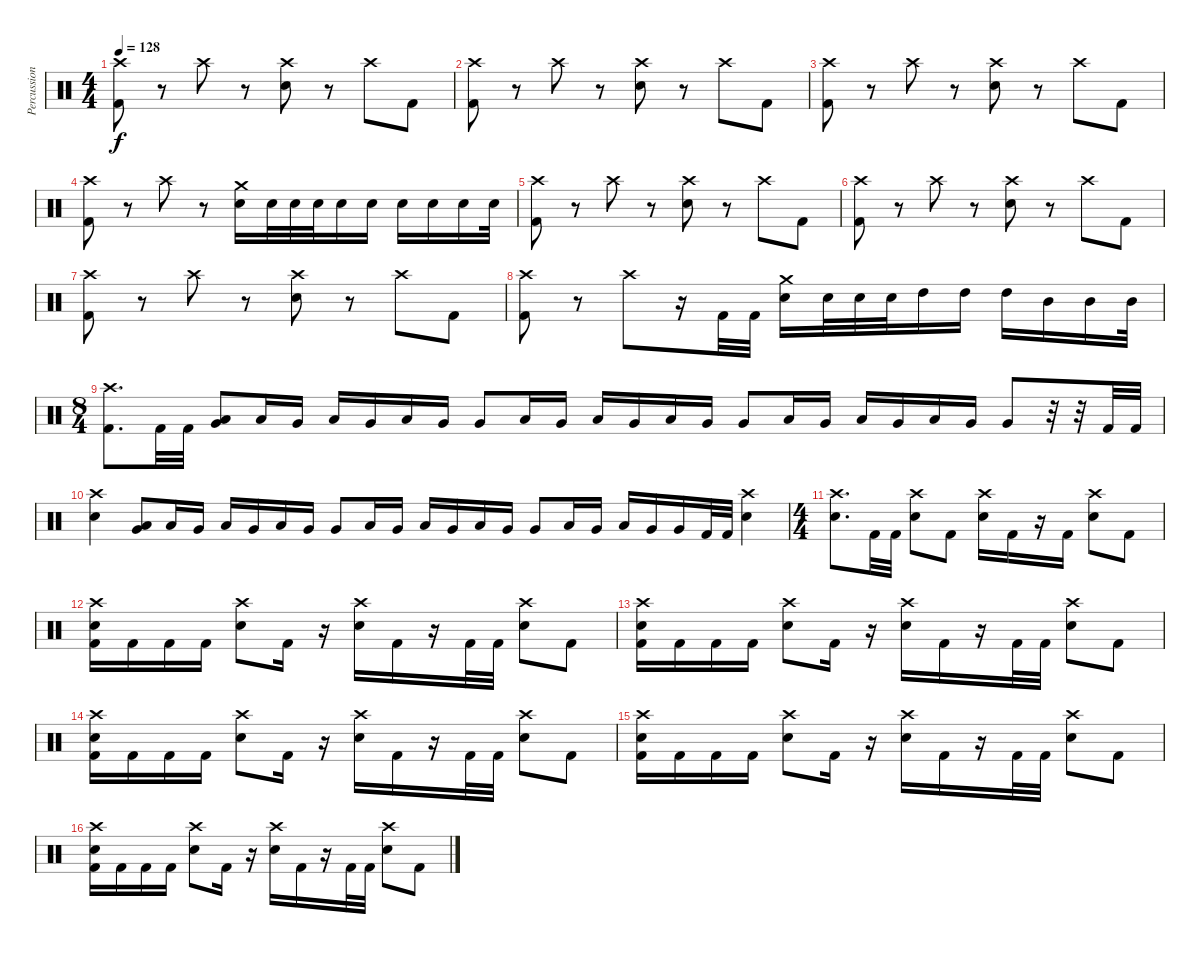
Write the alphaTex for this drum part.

\track ("Percussion" "Percussion") {instrument percussion}
\staff {score}
\articulation defaults
\ts (4 4)
\tempo 128
\clef neutral
\ks c
("Crash high (hit)" "Kick (hit) 2").8{dy f} r.8 "Crash high (hit)".8 r.8 ("Crash high (hit)" "Snare (hit) 2").8 r.8 "Crash high (hit)".8 "Kick (hit) 2".8 |
("Crash high (hit)" "Kick (hit) 2").8 r.8 "Crash high (hit)".8 r.8 ("Crash high (hit)" "Snare (hit) 2").8 r.8 "Crash high (hit)".8 "Kick (hit) 2".8 |
("Crash high (hit)" "Kick (hit) 2").8 r.8 "Crash high (hit)".8 r.8 ("Crash high (hit)" "Snare (hit) 2").8 r.8 "Crash high (hit)".8 "Kick (hit) 2".8 |
("Crash high (hit)" "Kick (hit) 2").8 r.8 "Crash high (hit)".8 r.8 ("Crash medium (hit)" "Snare (hit) 2").16 "Snare (hit) 2".32 "Snare (hit) 2".32 "Snare (hit) 2".32 "Snare (hit) 2".16 "Snare (hit) 2".16 "Snare (hit) 2".16 "Snare (hit) 2".16 "Snare (hit) 2".16 "Snare (hit) 2".32 |
("Crash high (hit)" "Kick (hit) 2").8 r.8 "Crash high (hit)".8 r.8 ("Crash high (hit)" "Snare (hit) 2").8 r.8 "Crash high (hit)".8 "Kick (hit) 2".8 |
("Crash high (hit)" "Kick (hit) 2").8 r.8 "Crash high (hit)".8 r.8 ("Crash high (hit)" "Snare (hit) 2").8 r.8 "Crash high (hit)".8 "Kick (hit) 2".8 |
("Crash high (hit)" "Kick (hit) 2").8 r.8 "Crash high (hit)".8 r.8 ("Crash high (hit)" "Snare (hit) 2").8 r.8 "Crash high (hit)".8 "Kick (hit) 2".8 |
("Crash high (hit)" "Kick (hit) 2").8 r.8 "Crash high (hit)".8 r.16 "Kick (hit) 2".32 "Kick (hit) 2".32 ("Crash medium (hit)" "Snare (hit) 2").16 "Snare (hit) 2".32 "Snare (hit) 2".32 "Snare (hit) 2".32 "High Tom (hit)".16 "High Tom (hit)".16 "High Tom (hit)".16 "Mid Tom (hit)".16 "Mid Tom (hit)".16 "Mid Tom (hit)".32 |
\ts (8 4)
("Crash high (hit)" "Kick (hit) 2").8{d} "Kick (hit) 2".32 "Kick (hit) 2".32 ("Very Low Tom (hit)" "Low Tom (hit)").8 "Low Tom (hit)".16 "Very Low Tom (hit)".16 "Low Tom (hit)".16 "Very Low Tom (hit)".16 "Low Tom (hit)".16 "Very Low Tom (hit)".16 "Very Low Tom (hit)".8 "Low Tom (hit)".16 "Very Low Tom (hit)".16 "Low Tom (hit)".16 "Very Low Tom (hit)".16 "Low Tom (hit)".16 "Very Low Tom (hit)".16 "Very Low Tom (hit)".8 "Low Tom (hit)".16 "Very Low Tom (hit)".16 "Low Tom (hit)".16 "Very Low Tom (hit)".16 "Low Tom (hit)".16 "Very Low Tom (hit)".16 "Very Low Tom (hit)".8 r.32 r.32 "Kick (hit) 2".32 "Kick (hit) 2".32 |
("Crash high (hit)" "Snare (hit) 2").4 ("Very Low Tom (hit)" "Low Tom (hit)").8 "Low Tom (hit)".16 "Very Low Tom (hit)".16 "Low Tom (hit)".16 "Very Low Tom (hit)".16 "Low Tom (hit)".16 "Very Low Tom (hit)".16 "Very Low Tom (hit)".8 "Low Tom (hit)".16 "Very Low Tom (hit)".16 "Low Tom (hit)".16 "Very Low Tom (hit)".16 "Low Tom (hit)".16 "Very Low Tom (hit)".16 "Very Low Tom (hit)".8 "Low Tom (hit)".16 "Very Low Tom (hit)".16 "Low Tom (hit)".16 "Very Low Tom (hit)".16 "Very Low Tom (hit)".16 "Kick (hit) 2".32 "Kick (hit) 2".32 ("Crash high (hit)" "Snare (hit) 2").4 |
\ts (4 4)
("Crash high (hit)" "Snare (hit) 2").8{d} "Kick (hit) 2".32 "Kick (hit) 2".32 ("Crash high (hit)" "Snare (hit) 2").8 "Kick (hit) 2".8 ("Crash high (hit)" "Snare (hit) 2").16 "Kick (hit) 2".16 r.16 "Kick (hit) 2".16 ("Crash high (hit)" "Snare (hit) 2").8 "Kick (hit) 2".8 |
("Crash high (hit)" "Snare (hit) 2" "Kick (hit) 2").16 "Kick (hit) 2".16 "Kick (hit) 2".16 "Kick (hit) 2".16 ("Crash high (hit)" "Snare (hit) 2").8 "Kick (hit) 2".16 r.16 ("Crash high (hit)" "Snare (hit) 2").16 "Kick (hit) 2".16 r.16 "Kick (hit) 2".32 "Kick (hit) 2".32 ("Crash high (hit)" "Snare (hit) 2").8 "Kick (hit) 2".8 |
("Crash high (hit)" "Snare (hit) 2" "Kick (hit) 2").16 "Kick (hit) 2".16 "Kick (hit) 2".16 "Kick (hit) 2".16 ("Crash high (hit)" "Snare (hit) 2").8 "Kick (hit) 2".16 r.16 ("Crash high (hit)" "Snare (hit) 2").16 "Kick (hit) 2".16 r.16 "Kick (hit) 2".32 "Kick (hit) 2".32 ("Crash high (hit)" "Snare (hit) 2").8 "Kick (hit) 2".8 |
("Crash high (hit)" "Snare (hit) 2" "Kick (hit) 2").16 "Kick (hit) 2".16 "Kick (hit) 2".16 "Kick (hit) 2".16 ("Crash high (hit)" "Snare (hit) 2").8 "Kick (hit) 2".16 r.16 ("Crash high (hit)" "Snare (hit) 2").16 "Kick (hit) 2".16 r.16 "Kick (hit) 2".32 "Kick (hit) 2".32 ("Crash high (hit)" "Snare (hit) 2").8 "Kick (hit) 2".8 |
("Crash high (hit)" "Snare (hit) 2" "Kick (hit) 2").16 "Kick (hit) 2".16 "Kick (hit) 2".16 "Kick (hit) 2".16 ("Crash high (hit)" "Snare (hit) 2").8 "Kick (hit) 2".16 r.16 ("Crash high (hit)" "Snare (hit) 2").16 "Kick (hit) 2".16 r.16 "Kick (hit) 2".32 "Kick (hit) 2".32 ("Crash high (hit)" "Snare (hit) 2").8 "Kick (hit) 2".8 |
("Crash high (hit)" "Snare (hit) 2" "Kick (hit) 2").16 "Kick (hit) 2".16 "Kick (hit) 2".16 "Kick (hit) 2".16 ("Crash high (hit)" "Snare (hit) 2").8 "Kick (hit) 2".16 r.16 ("Crash high (hit)" "Snare (hit) 2").16 "Kick (hit) 2".16 r.16 "Kick (hit) 2".32 "Kick (hit) 2".32 ("Crash high (hit)" "Snare (hit) 2").8 "Kick (hit) 2".8
